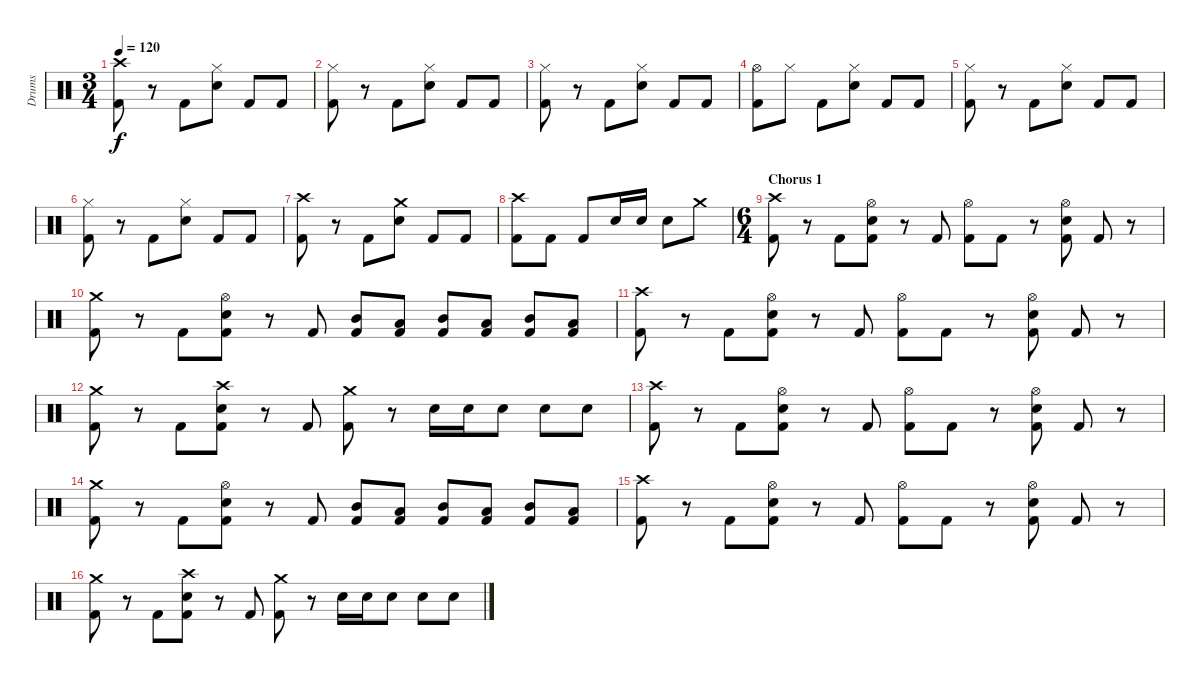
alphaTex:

\track ("Drums" "Drums") {instrument percussion}
\staff {score}
\articulation defaults
\ts (3 4)
\tempo 120
\clef neutral
\ks c
("Crash high (hit)" "Kick (hit) 2").8{dy f} r.8 "Kick (hit) 2".8 ("Hi-Hat (closed)" "Snare (hit) 2").8 "Kick (hit) 2".8 "Kick (hit) 2".8 |
("Hi-Hat (closed)" "Kick (hit) 2").8 r.8 "Kick (hit) 2".8 ("Hi-Hat (closed)" "Snare (hit) 2").8 "Kick (hit) 2".8 "Kick (hit) 2".8 |
("Hi-Hat (closed)" "Kick (hit) 2").8 r.8 "Kick (hit) 2".8 ("Hi-Hat (closed)" "Snare (hit) 2").8 "Kick (hit) 2".8 "Kick (hit) 2".8 |
("Hi-Hat (open)" "Kick (hit) 2").8 "Hi-Hat (closed)".8 "Kick (hit) 2".8 ("Hi-Hat (closed)" "Snare (hit) 2").8 "Kick (hit) 2".8 "Kick (hit) 2".8 |
("Hi-Hat (closed)" "Kick (hit) 2").8 r.8 "Kick (hit) 2".8 ("Hi-Hat (closed)" "Snare (hit) 2").8 "Kick (hit) 2".8 "Kick (hit) 2".8 |
("Hi-Hat (closed)" "Kick (hit) 2").8 r.8 "Kick (hit) 2".8 ("Hi-Hat (closed)" "Snare (hit) 2").8 "Kick (hit) 2".8 "Kick (hit) 2".8 |
("Crash high (hit)" "Kick (hit) 2").8 r.8 "Kick (hit) 2".8 ("Crash medium (hit)" "Snare (hit) 2").8 "Kick (hit) 2".8 "Kick (hit) 2".8 |
("Crash high (hit)" "Kick (hit) 2").8 "Kick (hit) 2".8 "Kick (hit) 2".8 "Snare (hit) 2".16 "Snare (hit) 2".16 "Snare (hit) 2".8 "Crash medium (hit)".8 |
\ts (6 4)
\section ("" "Chorus 1")
("Crash high (hit)" "Kick (hit) 2").8 r.8 "Kick (hit) 2".8 ("Hi-Hat (open)" "Snare (hit) 2" "Kick (hit) 2").8 r.8 "Kick (hit) 2".8 ("Hi-Hat (open)" "Kick (hit) 2").8 "Kick (hit) 2".8 r.8 ("Hi-Hat (open)" "Snare (hit) 2" "Kick (hit) 2").8 "Kick (hit) 2".8 r.8 |
("Crash medium (hit)" "Kick (hit) 2").8 r.8 "Kick (hit) 2".8 ("Hi-Hat (open)" "Snare (hit) 2" "Kick (hit) 2").8 r.8 "Kick (hit) 2".8 ("Mid Tom (hit)" "Kick (hit) 2").8 ("Low Tom (hit)" "Kick (hit) 2").8 ("Mid Tom (hit)" "Kick (hit) 2").8 ("Low Tom (hit)" "Kick (hit) 2").8 ("Mid Tom (hit)" "Kick (hit) 2").8 ("Low Tom (hit)" "Kick (hit) 2").8 |
("Crash high (hit)" "Kick (hit) 2").8 r.8 "Kick (hit) 2".8 ("Hi-Hat (open)" "Snare (hit) 2" "Kick (hit) 2").8 r.8 "Kick (hit) 2".8 ("Hi-Hat (open)" "Kick (hit) 2").8 "Kick (hit) 2".8 r.8 ("Hi-Hat (open)" "Snare (hit) 2" "Kick (hit) 2").8 "Kick (hit) 2".8 r.8 |
("Crash medium (hit)" "Kick (hit) 2").8 r.8 "Kick (hit) 2".8 ("Crash high (hit)" "Snare (hit) 2" "Kick (hit) 2").8 r.8 "Kick (hit) 2".8 ("Crash medium (hit)" "Kick (hit) 2").8 r.8 "Snare (hit) 2".16 "Snare (hit) 2".16 "Snare (hit) 2".8 "Snare (hit) 2".8 "Snare (hit) 2".8 |
("Crash high (hit)" "Kick (hit) 2").8 r.8 "Kick (hit) 2".8 ("Hi-Hat (open)" "Snare (hit) 2" "Kick (hit) 2").8 r.8 "Kick (hit) 2".8 ("Hi-Hat (open)" "Kick (hit) 2").8 "Kick (hit) 2".8 r.8 ("Hi-Hat (open)" "Snare (hit) 2" "Kick (hit) 2").8 "Kick (hit) 2".8 r.8 |
("Crash medium (hit)" "Kick (hit) 2").8 r.8 "Kick (hit) 2".8 ("Hi-Hat (open)" "Snare (hit) 2" "Kick (hit) 2").8 r.8 "Kick (hit) 2".8 ("Mid Tom (hit)" "Kick (hit) 2").8 ("Low Tom (hit)" "Kick (hit) 2").8 ("Mid Tom (hit)" "Kick (hit) 2").8 ("Low Tom (hit)" "Kick (hit) 2").8 ("Mid Tom (hit)" "Kick (hit) 2").8 ("Low Tom (hit)" "Kick (hit) 2").8 |
("Crash high (hit)" "Kick (hit) 2").8 r.8 "Kick (hit) 2".8 ("Hi-Hat (open)" "Snare (hit) 2" "Kick (hit) 2").8 r.8 "Kick (hit) 2".8 ("Hi-Hat (open)" "Kick (hit) 2").8 "Kick (hit) 2".8 r.8 ("Hi-Hat (open)" "Snare (hit) 2" "Kick (hit) 2").8 "Kick (hit) 2".8 r.8 |
("Crash medium (hit)" "Kick (hit) 2").8 r.8 "Kick (hit) 2".8 ("Crash high (hit)" "Snare (hit) 2" "Kick (hit) 2").8 r.8 "Kick (hit) 2".8 ("Crash medium (hit)" "Kick (hit) 2").8 r.8 "Snare (hit) 2".16 "Snare (hit) 2".16 "Snare (hit) 2".8 "Snare (hit) 2".8 "Snare (hit) 2".8
